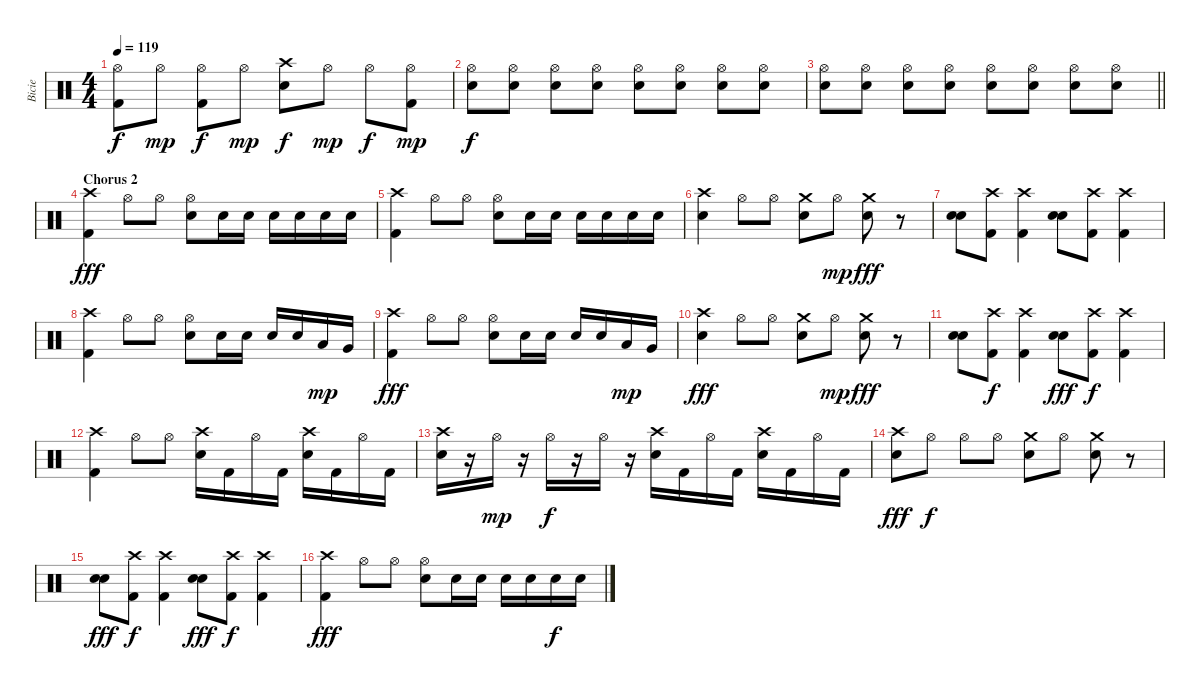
\track ("Bicie" "Bicie") {instrument percussion}
\staff {score}
\articulation defaults
\ts (4 4)
\tempo 119
\clef neutral
\ks c
("Hi-Hat (open)" "Kick (hit) 2").8{dy f} "Hi-Hat (open)".8{dy mp} ("Hi-Hat (open)" "Kick (hit) 2").8{dy f} "Hi-Hat (open)".8{dy mp} ("Crash high (hit)" "Snare (hit) 2").8{dy f} "Hi-Hat (open)".8{dy mp} "Hi-Hat (open)".8{dy f} ("Hi-Hat (open)" "Kick (hit) 2").8{dy mp} |
("Hi-Hat (open)" "Snare (hit) 2").8{dy f} ("Hi-Hat (open)" "Snare (hit) 2").8 ("Hi-Hat (open)" "Snare (hit) 2").8 ("Hi-Hat (open)" "Snare (hit) 2").8 ("Hi-Hat (open)" "Snare (hit) 2").8 ("Hi-Hat (open)" "Snare (hit) 2").8 ("Hi-Hat (open)" "Snare (hit) 2").8 ("Hi-Hat (open)" "Snare (hit) 2").8 |
\barLineRight lightlight
("Hi-Hat (open)" "Snare (hit) 2").8 ("Hi-Hat (open)" "Snare (hit) 2").8 ("Hi-Hat (open)" "Snare (hit) 2").8 ("Hi-Hat (open)" "Snare (hit) 2").8 ("Hi-Hat (open)" "Snare (hit) 2").8 ("Hi-Hat (open)" "Snare (hit) 2").8 ("Hi-Hat (open)" "Snare (hit) 2").8 ("Hi-Hat (open)" "Snare (hit) 2").8 |
\section ("" "Chorus 2")
("Crash high (hit)" "Kick (hit) 2").4{dy fff} "Hi-Hat (open)".8 "Hi-Hat (open)".8 ("Hi-Hat (open)" "Snare (hit) 2").8 "Snare (hit) 2".16 "Snare (hit) 2".16 "Snare (hit) 2".16 "Snare (hit) 2".16 "Snare (hit) 2".16 "Snare (hit) 2".16 |
("Crash high (hit)" "Kick (hit) 2").4 "Hi-Hat (open)".8 "Hi-Hat (open)".8 ("Hi-Hat (open)" "Snare (hit) 2").8 "Snare (hit) 2".16 "Snare (hit) 2".16 "Snare (hit) 2".16 "Snare (hit) 2".16 "Snare (hit) 2".16 "Snare (hit) 2".16 |
("Crash high (hit)" "Snare (hit) 2").4 "Hi-Hat (open)".8 "Hi-Hat (open)".8 ("Crash medium (hit)" "Snare (hit) 2").8 "Hi-Hat (open)".8{dy mp} ("Crash medium (hit)" "Snare (hit) 2").8{dy fff} r.8 |
("Snare (hit) 2" "Snare (hit) 2").8 ("Crash high (hit)" "Kick (hit) 2").8 ("Crash high (hit)" "Kick (hit) 2").4 ("Snare (hit) 2" "Snare (hit) 2").8 ("Crash high (hit)" "Kick (hit) 2").8 ("Crash high (hit)" "Kick (hit) 2").4 |
("Crash high (hit)" "Kick (hit) 2").4 "Hi-Hat (open)".8 "Hi-Hat (open)".8 ("Hi-Hat (open)" "Snare (hit) 2").8 "Snare (hit) 2".16 "Snare (hit) 2".16 "Snare (hit) 2".16 "Snare (hit) 2".16 "Low Tom (hit)".16{dy mp} "Very Low Tom (hit)".16 |
("Crash high (hit)" "Kick (hit) 2").4{dy fff} "Hi-Hat (open)".8 "Hi-Hat (open)".8 ("Hi-Hat (open)" "Snare (hit) 2").8 "Snare (hit) 2".16 "Snare (hit) 2".16 "Snare (hit) 2".16 "Snare (hit) 2".16 "Low Tom (hit)".16{dy mp} "Very Low Tom (hit)".16 |
("Crash high (hit)" "Snare (hit) 2").4{dy fff} "Hi-Hat (open)".8 "Hi-Hat (open)".8 ("Crash medium (hit)" "Snare (hit) 2").8 "Hi-Hat (open)".8{dy mp} ("Crash medium (hit)" "Snare (hit) 2").8{dy fff} r.8 |
("Snare (hit) 2" "Snare (hit) 2").8 ("Crash high (hit)" "Kick (hit) 2").8{dy f} ("Crash high (hit)" "Kick (hit) 2").4 ("Snare (hit) 2" "Snare (hit) 2").8{dy fff} ("Crash high (hit)" "Kick (hit) 2").8{dy f} ("Crash high (hit)" "Kick (hit) 2").4 |
("Crash high (hit)" "Kick (hit) 2").4 "Hi-Hat (open)".8 "Hi-Hat (open)".8 ("Crash high (hit)" "Snare (hit) 2").16 "Kick (hit) 2".16 "Hi-Hat (open)".16 "Kick (hit) 2".16 ("Crash high (hit)" "Snare (hit) 2").16 "Kick (hit) 2".16 "Hi-Hat (open)".16 "Kick (hit) 2".16 |
("Crash high (hit)" "Snare (hit) 2").16 r.16 "Hi-Hat (open)".16{dy mp} r.16 "Hi-Hat (open)".16{dy f} r.16 "Hi-Hat (open)".16 r.16 ("Crash high (hit)" "Snare (hit) 2").16 "Kick (hit) 2".16 "Hi-Hat (open)".16 "Kick (hit) 2".16 ("Crash high (hit)" "Snare (hit) 2").16 "Kick (hit) 2".16 "Hi-Hat (open)".16 "Kick (hit) 2".16 |
("Crash high (hit)" "Snare (hit) 2").8{dy fff} "Hi-Hat (open)".8{dy f} "Hi-Hat (open)".8 "Hi-Hat (open)".8 ("Crash medium (hit)" "Snare (hit) 2").8 "Hi-Hat (open)".8 ("Crash medium (hit)" "Snare (hit) 2").8 r.8 |
("Snare (hit) 2" "Snare (hit) 2").8{dy fff} ("Crash high (hit)" "Kick (hit) 2").8{dy f} ("Crash high (hit)" "Kick (hit) 2").4 ("Snare (hit) 2" "Snare (hit) 2").8{dy fff} ("Crash high (hit)" "Kick (hit) 2").8{dy f} ("Crash high (hit)" "Kick (hit) 2").4 |
("Crash high (hit)" "Kick (hit) 2").4{dy fff} "Hi-Hat (open)".8 "Hi-Hat (open)".8 ("Hi-Hat (open)" "Snare (hit) 2").8 "Snare (hit) 2".16 "Snare (hit) 2".16 "Snare (hit) 2".16 "Snare (hit) 2".16 "Snare (hit) 2".16{dy f} "Snare (hit) 2".16
